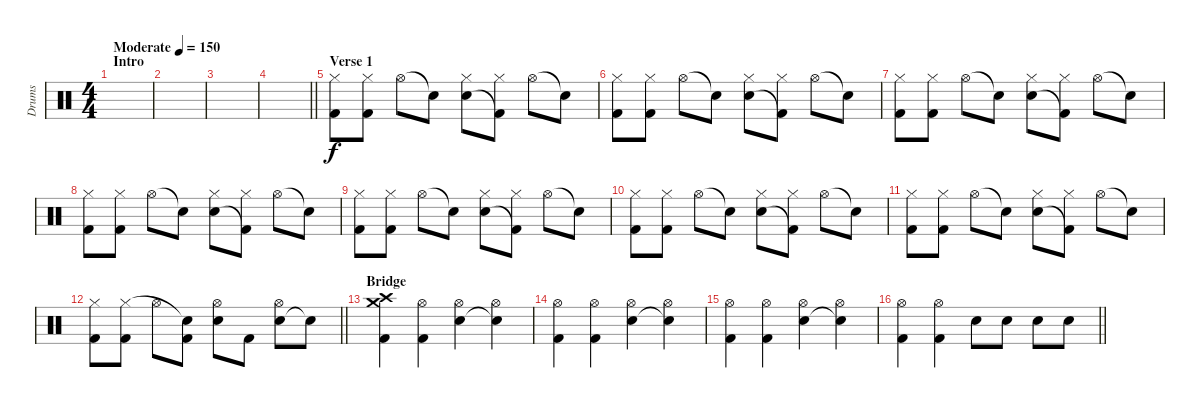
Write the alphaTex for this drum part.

\track ("Drums" "Drums") {instrument percussion}
\staff {score}
\articulation defaults
\ts (4 4)
\section ("" "Intro")
\tempo (150 "Moderate")
\clef neutral
\ks c
|
|
|
\barLineRight lightlight
|
\section ("" "Verse 1")
("Kick (hit) 2" "Hi-Hat (closed)").8 ("Kick (hit) 2" "Hi-Hat (closed)").8 "Hi-Hat (open)".8 "Snare (hit)"{t}.8 ("Electric Snare (hit)" "Hi-Hat (closed)").8 ("Kick (hit) 2"{t} "Hi-Hat (closed)").8 "Hi-Hat (open)".8 "Snare (hit)"{t}.8 |
("Kick (hit) 2" "Hi-Hat (closed)").8 ("Kick (hit) 2" "Hi-Hat (closed)").8 "Hi-Hat (open)".8 "Snare (hit)"{t}.8 ("Electric Snare (hit)" "Hi-Hat (closed)").8 ("Kick (hit) 2"{t} "Hi-Hat (closed)").8 "Hi-Hat (open)".8 "Snare (hit)"{t}.8 |
("Kick (hit) 2" "Hi-Hat (closed)").8 ("Kick (hit) 2" "Hi-Hat (closed)").8 "Hi-Hat (open)".8 "Snare (hit)"{t}.8 ("Electric Snare (hit)" "Hi-Hat (closed)").8 ("Kick (hit) 2"{t} "Hi-Hat (closed)").8 "Hi-Hat (open)".8 "Snare (hit)"{t}.8 |
("Kick (hit) 2" "Hi-Hat (closed)").8 ("Kick (hit) 2" "Hi-Hat (closed)").8 "Hi-Hat (open)".8 "Snare (hit)"{t}.8 ("Electric Snare (hit)" "Hi-Hat (closed)").8 ("Kick (hit) 2"{t} "Hi-Hat (closed)").8 "Hi-Hat (open)".8 "Snare (hit)"{t}.8 |
("Kick (hit) 2" "Hi-Hat (closed)").8 ("Kick (hit) 2" "Hi-Hat (closed)").8 "Hi-Hat (open)".8 "Snare (hit)"{t}.8 ("Electric Snare (hit)" "Hi-Hat (closed)").8 ("Kick (hit) 2"{t} "Hi-Hat (closed)").8 "Hi-Hat (open)".8 "Snare (hit)"{t}.8 |
("Kick (hit) 2" "Hi-Hat (closed)").8 ("Kick (hit) 2" "Hi-Hat (closed)").8 "Hi-Hat (open)".8 "Snare (hit)"{t}.8 ("Electric Snare (hit)" "Hi-Hat (closed)").8 ("Kick (hit) 2"{t} "Hi-Hat (closed)").8 "Hi-Hat (open)".8 "Snare (hit)"{t}.8 |
("Kick (hit) 2" "Hi-Hat (closed)").8 ("Kick (hit) 2" "Hi-Hat (closed)").8 "Hi-Hat (open)".8 "Snare (hit)"{t}.8 ("Electric Snare (hit)" "Hi-Hat (closed)").8 ("Kick (hit) 2"{t} "Hi-Hat (closed)").8 "Hi-Hat (open)".8 "Snare (hit)"{t}.8 |
\barLineRight lightlight
("Kick (hit) 2" "Hi-Hat (closed)").8 ("Kick (hit) 2" "Hi-Hat (closed)").8 "Hi-Hat (open)".8 ("Kick (hit) 2" "Snare (hit)"{t}).8 ("Electric Snare (hit)" "Hi-Hat (open)").8 "Kick (hit) 2".8 ("Electric Snare (hit)" "Hi-Hat (open)").8 "Snare (hit)"{t}.8 |
\section ("" "Bridge")
("Kick (hit) 2" "Crash medium (hit)" "Crash high (hit)").4 ("Kick (hit) 2" "Hi-Hat (open)").4 ("Electric Snare (hit)" "Hi-Hat (open)").4 ("Snare (hit)"{t} "Hi-Hat (open)").4 |
("Kick (hit) 2" "Hi-Hat (open)").4 ("Kick (hit) 2" "Hi-Hat (open)").4 ("Electric Snare (hit)" "Hi-Hat (open)").4 ("Snare (hit)"{t} "Hi-Hat (open)").4 |
("Kick (hit) 2" "Hi-Hat (open)").4 ("Kick (hit) 2" "Hi-Hat (open)").4 ("Electric Snare (hit)" "Hi-Hat (open)").4 ("Snare (hit)"{t} "Hi-Hat (open)").4 |
\barLineRight lightlight
("Kick (hit) 2" "Hi-Hat (open)").4 ("Kick (hit) 2" "Hi-Hat (open)").4 "Electric Snare (hit)".8 "Electric Snare (hit)".8 "Electric Snare (hit)".8 "Electric Snare (hit)".8
